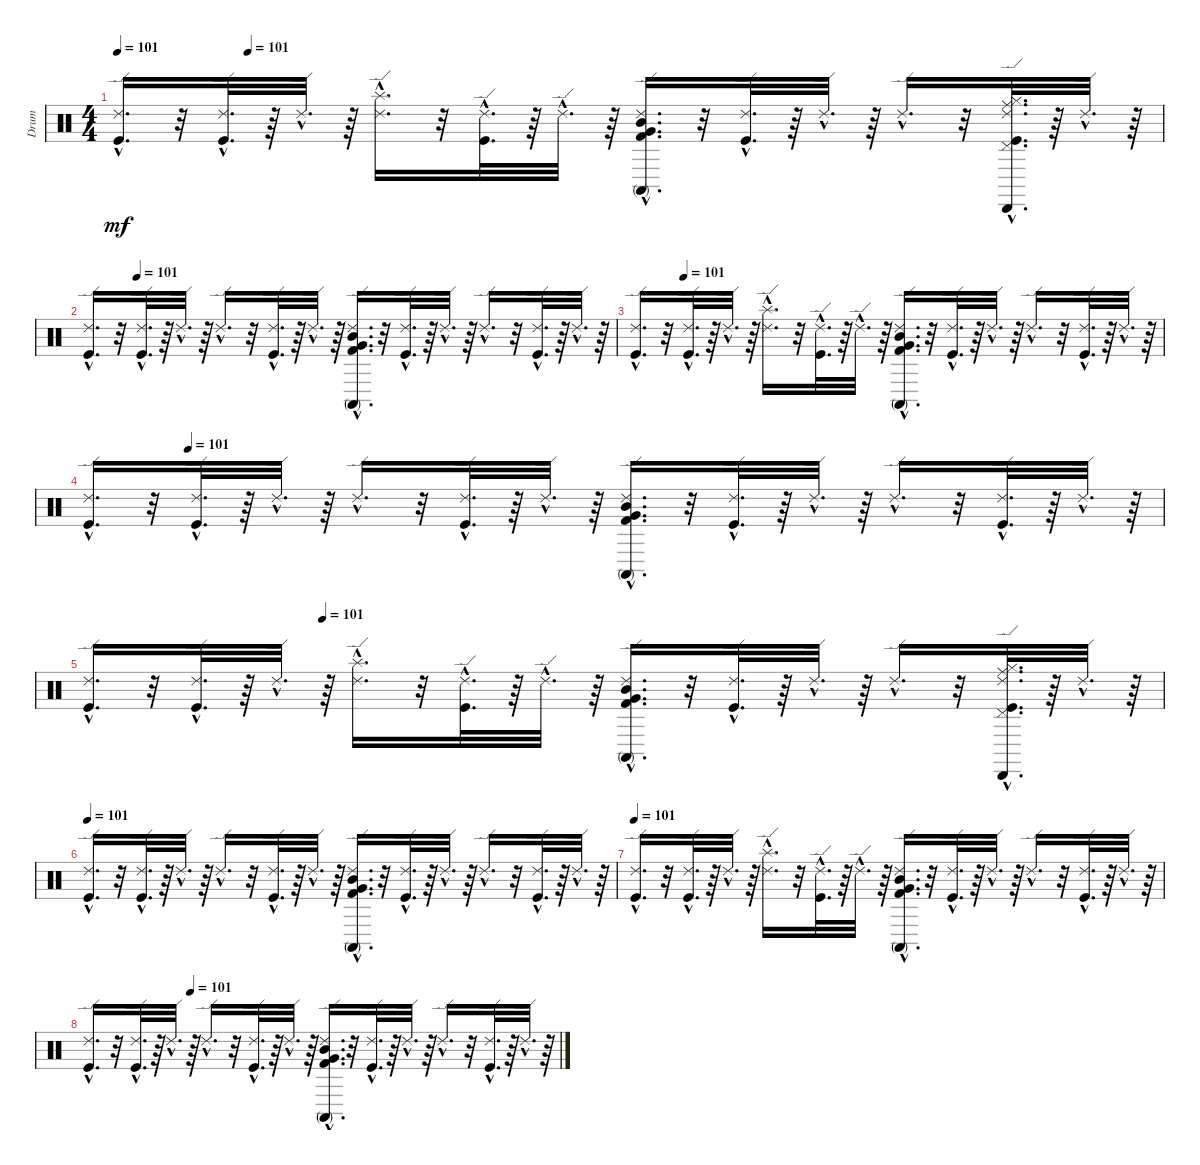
\track ("Drum" "Drum") {instrument percussion}
\staff {score}
\articulation defaults
\ts (4 4)
\tempo 101
\tempo (101 0.125)
\clef neutral
\ks c
("Kick (hit)"{hac} "Ride (edge) 2"{hac}).16{d dy mf} r.32 ("Kick (hit)"{hac} "Ride (edge) 2"{hac}).32{d} r.64 "Ride (edge) 2"{hac}.32{d} r.64 ("Splash (hit)"{hac} "Ride (edge) 2"{hac}).16{d} r.32 ("Ride (edge) 2"{hac} "Kick (hit)"{hac}).32{d} r.64 "Ride (edge) 2"{hac}.32{d} r.64 ("Conga high (mute)"{hac} "Mid Tom (hit)"{hac} "Very Low Tom (hit)"{hac} "Kick (hit) 2"{hac} "Ride (edge) 2"{hac}).16{d} r.32 ("Kick (hit)"{hac} "Ride (edge) 2"{hac}).32{d} r.64 "Ride (edge) 2"{hac}.32{d} r.64 "Ride (edge) 2"{hac}.16{d} r.32 ("Kick (hit)"{hac} "Ride (edge) 2"{hac} "Ride (middle)"{hac} "Pedal Hi-Hat (hit)"{hac} "Hi-Hat (closed)"{hac} "Cabasa (hit)"{hac}).32{d} r.64 "Ride (edge) 2"{hac}.32{d} r.64 |
\tempo (101 0.09375)
("Ride (edge) 2"{hac} "Kick (hit)"{hac}).16{d} r.32 ("Ride (edge) 2"{hac} "Kick (hit)"{hac}).32{d} r.64 "Ride (edge) 2"{hac}.32{d} r.64 "Ride (edge) 2"{hac}.16{d} r.32 ("Kick (hit)"{hac} "Ride (edge) 2"{hac}).32{d} r.64 "Ride (edge) 2"{hac}.32{d} r.64 ("Ride (edge) 2"{hac} "Kick (hit) 2"{hac} "Very Low Tom (hit)"{hac} "Mid Tom (hit)"{hac} "Conga high (mute)"{hac}).16{d} r.32 ("Ride (edge) 2"{hac} "Kick (hit)"{hac}).32{d} r.64 "Ride (edge) 2"{hac}.32{d} r.64 "Ride (edge) 2"{hac}.16{d} r.32 ("Ride (edge) 2"{hac} "Kick (hit)"{hac}).32{d} r.64 "Ride (edge) 2"{hac}.32{d} r.64 |
\tempo (101 0.09375)
("Kick (hit)"{hac} "Ride (edge) 2"{hac}).16{d} r.32 ("Kick (hit)"{hac} "Ride (edge) 2"{hac}).32{d} r.64 "Ride (edge) 2"{hac}.32{d} r.64 ("Ride (edge) 2"{hac} "Splash (hit)"{hac}).16{d} r.32 ("Ride (edge) 2"{hac} "Kick (hit)"{hac}).32{d} r.64 "Ride (edge) 2"{hac}.32{d} r.64 ("Conga high (mute)"{hac} "Mid Tom (hit)"{hac} "Very Low Tom (hit)"{hac} "Kick (hit) 2"{hac} "Ride (edge) 2"{hac}).16{d} r.32 ("Kick (hit)"{hac} "Ride (edge) 2"{hac}).32{d} r.64 "Ride (edge) 2"{hac}.32{d} r.64 "Ride (edge) 2"{hac}.16{d} r.32 ("Kick (hit)"{hac} "Ride (edge) 2"{hac}).32{d} r.64 "Ride (edge) 2"{hac}.32{d} r.64 |
\tempo (101 0.09375)
("Kick (hit)"{hac} "Ride (edge) 2"{hac}).16{d} r.32 ("Kick (hit)"{hac} "Ride (edge) 2"{hac}).32{d} r.64 "Ride (edge) 2"{hac}.32{d} r.64 "Ride (edge) 2"{hac}.16{d} r.32 ("Ride (edge) 2"{hac} "Kick (hit)"{hac}).32{d} r.64 "Ride (edge) 2"{hac}.32{d} r.64 ("Conga high (mute)"{hac} "Mid Tom (hit)"{hac} "Very Low Tom (hit)"{hac} "Kick (hit) 2"{hac} "Ride (edge) 2"{hac}).16{d} r.32 ("Kick (hit)"{hac} "Ride (edge) 2"{hac}).32{d} r.64 "Ride (edge) 2"{hac}.32{d} r.64 "Ride (edge) 2"{hac}.16{d} r.32 ("Kick (hit)"{hac} "Ride (edge) 2"{hac}).32{d} r.64 "Ride (edge) 2"{hac}.32{d} r.64 |
\tempo (101 0.21875)
("Kick (hit)"{hac} "Ride (edge) 2"{hac}).16{d} r.32 ("Kick (hit)"{hac} "Ride (edge) 2"{hac}).32{d} r.64 "Ride (edge) 2"{hac}.32{d} r.64 ("Splash (hit)"{hac} "Ride (edge) 2"{hac}).16{d} r.32 ("Ride (edge) 2"{hac} "Kick (hit)"{hac}).32{d} r.64 "Ride (edge) 2"{hac}.32{d} r.64 ("Conga high (mute)"{hac} "Mid Tom (hit)"{hac} "Very Low Tom (hit)"{hac} "Kick (hit) 2"{hac} "Ride (edge) 2"{hac}).16{d} r.32 ("Kick (hit)"{hac} "Ride (edge) 2"{hac}).32{d} r.64 "Ride (edge) 2"{hac}.32{d} r.64 "Ride (edge) 2"{hac}.16{d} r.32 ("Kick (hit)"{hac} "Ride (edge) 2"{hac} "Ride (middle)"{hac} "Pedal Hi-Hat (hit)"{hac} "Hi-Hat (closed)"{hac} "Cabasa (hit)"{hac}).32{d} r.64 "Ride (edge) 2"{hac}.32{d} r.64 |
\tempo 101
("Ride (edge) 2"{hac} "Kick (hit)"{hac}).16{d} r.32 ("Ride (edge) 2"{hac} "Kick (hit)"{hac}).32{d} r.64 "Ride (edge) 2"{hac}.32{d} r.64 "Ride (edge) 2"{hac}.16{d} r.32 ("Kick (hit)"{hac} "Ride (edge) 2"{hac}).32{d} r.64 "Ride (edge) 2"{hac}.32{d} r.64 ("Ride (edge) 2"{hac} "Kick (hit) 2"{hac} "Very Low Tom (hit)"{hac} "Mid Tom (hit)"{hac} "Conga high (mute)"{hac}).16{d} r.32 ("Ride (edge) 2"{hac} "Kick (hit)"{hac}).32{d} r.64 "Ride (edge) 2"{hac}.32{d} r.64 "Ride (edge) 2"{hac}.16{d} r.32 ("Ride (edge) 2"{hac} "Kick (hit)"{hac}).32{d} r.64 "Ride (edge) 2"{hac}.32{d} r.64 |
\tempo 101
("Kick (hit)"{hac} "Ride (edge) 2"{hac}).16{d} r.32 ("Kick (hit)"{hac} "Ride (edge) 2"{hac}).32{d} r.64 "Ride (edge) 2"{hac}.32{d} r.64 ("Ride (edge) 2"{hac} "Splash (hit)"{hac}).16{d} r.32 ("Ride (edge) 2"{hac} "Kick (hit)"{hac}).32{d} r.64 "Ride (edge) 2"{hac}.32{d} r.64 ("Conga high (mute)"{hac} "Mid Tom (hit)"{hac} "Very Low Tom (hit)"{hac} "Kick (hit) 2"{hac} "Ride (edge) 2"{hac}).16{d} r.32 ("Kick (hit)"{hac} "Ride (edge) 2"{hac}).32{d} r.64 "Ride (edge) 2"{hac}.32{d} r.64 "Ride (edge) 2"{hac}.16{d} r.32 ("Kick (hit)"{hac} "Ride (edge) 2"{hac}).32{d} r.64 "Ride (edge) 2"{hac}.32{d} r.64 |
\tempo (101 0.21875)
("Kick (hit)"{hac} "Ride (edge) 2"{hac}).16{d} r.32 ("Kick (hit)"{hac} "Ride (edge) 2"{hac}).32{d} r.64 "Ride (edge) 2"{hac}.32{d} r.64 "Ride (edge) 2"{hac}.16{d} r.32 ("Ride (edge) 2"{hac} "Kick (hit)"{hac}).32{d} r.64 "Ride (edge) 2"{hac}.32{d} r.64 ("Conga high (mute)"{hac} "Mid Tom (hit)"{hac} "Very Low Tom (hit)"{hac} "Kick (hit) 2"{hac} "Ride (edge) 2"{hac}).16{d} r.32 ("Kick (hit)"{hac} "Ride (edge) 2"{hac}).32{d} r.64 "Ride (edge) 2"{hac}.32{d} r.64 "Ride (edge) 2"{hac}.16{d} r.32 ("Kick (hit)"{hac} "Ride (edge) 2"{hac}).32{d} r.64 "Ride (edge) 2"{hac}.32{d} r.64
